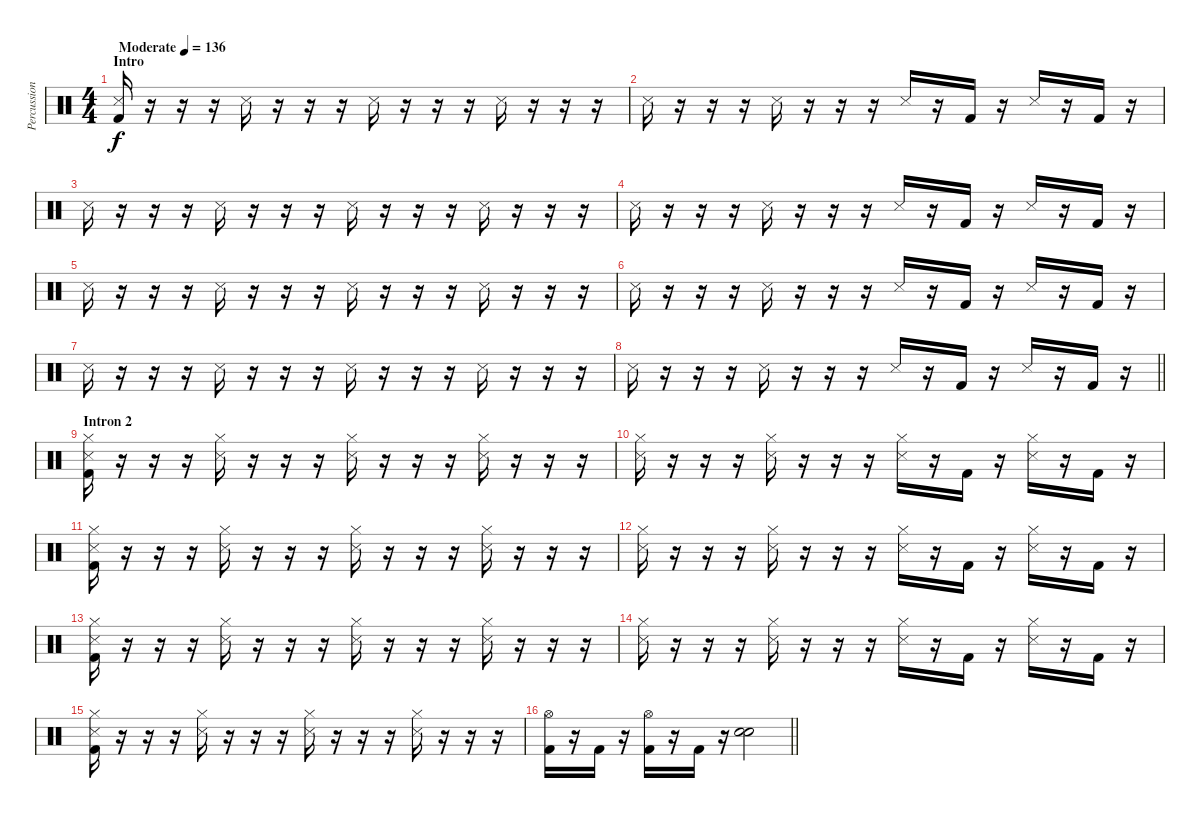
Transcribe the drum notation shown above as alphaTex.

\track ("Percussion" "Percussion") {instrument percussion}
\staff {score}
\articulation defaults
\ts (4 4)
\section ("" "Intro")
\tempo (136 "Moderate")
\clef neutral
\ks c
("Snare (side stick) 3" "Kick (hit) 2").16{dy f} r.16 r.16 r.16 "Snare (side stick) 3".16 r.16 r.16 r.16 "Snare (side stick) 3".16 r.16 r.16 r.16 "Snare (side stick) 3".16 r.16 r.16 r.16 |
"Snare (side stick) 3".16 r.16 r.16 r.16 "Snare (side stick) 3".16 r.16 r.16 r.16 "Snare (side stick) 3".16 r.16 "Kick (hit) 2".16 r.16 "Snare (side stick) 3".16 r.16 "Kick (hit) 2".16 r.16 |
"Snare (side stick) 3".16 r.16 r.16 r.16 "Snare (side stick) 3".16 r.16 r.16 r.16 "Snare (side stick) 3".16 r.16 r.16 r.16 "Snare (side stick) 3".16 r.16 r.16 r.16 |
"Snare (side stick) 3".16 r.16 r.16 r.16 "Snare (side stick) 3".16 r.16 r.16 r.16 "Snare (side stick) 3".16 r.16 "Kick (hit) 2".16 r.16 "Snare (side stick) 3".16 r.16 "Kick (hit) 2".16 r.16 |
"Snare (side stick) 3".16 r.16 r.16 r.16 "Snare (side stick) 3".16 r.16 r.16 r.16 "Snare (side stick) 3".16 r.16 r.16 r.16 "Snare (side stick) 3".16 r.16 r.16 r.16 |
"Snare (side stick) 3".16 r.16 r.16 r.16 "Snare (side stick) 3".16 r.16 r.16 r.16 "Snare (side stick) 3".16 r.16 "Kick (hit) 2".16 r.16 "Snare (side stick) 3".16 r.16 "Kick (hit) 2".16 r.16 |
"Snare (side stick) 3".16 r.16 r.16 r.16 "Snare (side stick) 3".16 r.16 r.16 r.16 "Snare (side stick) 3".16 r.16 r.16 r.16 "Snare (side stick) 3".16 r.16 r.16 r.16 |
\barLineRight lightlight "Snare (side stick) 3".16
r.16 r.16 r.16 "Snare (side stick) 3".16 r.16 r.16 r.16 "Snare (side stick) 3".16 r.16 "Kick (hit) 2".16 r.16 "Snare (side stick) 3".16 r.16 "Kick (hit) 2".16 r.16 |
\section ("" "Intron 2")
("Snare (side stick) 3" "Hi-Hat (closed)" "Kick (hit) 2").16 r.16 r.16 r.16 ("Snare (side stick) 3" "Hi-Hat (closed)").16 r.16 r.16 r.16 ("Snare (side stick) 3" "Hi-Hat (closed)").16 r.16 r.16 r.16 ("Snare (side stick) 3" "Hi-Hat (closed)").16 r.16 r.16 r.16 |
("Snare (side stick) 3" "Hi-Hat (closed)").16 r.16 r.16 r.16 ("Snare (side stick) 3" "Hi-Hat (closed)").16 r.16 r.16 r.16 ("Snare (side stick) 3" "Hi-Hat (closed)").16 r.16 "Kick (hit) 2".16 r.16 ("Snare (side stick) 3" "Hi-Hat (closed)").16 r.16 "Kick (hit) 2".16 r.16 |
("Snare (side stick) 3" "Hi-Hat (closed)" "Kick (hit) 2").16 r.16 r.16 r.16 ("Snare (side stick) 3" "Hi-Hat (closed)").16 r.16 r.16 r.16 ("Snare (side stick) 3" "Hi-Hat (closed)").16 r.16 r.16 r.16 ("Snare (side stick) 3" "Hi-Hat (closed)").16 r.16 r.16 r.16 |
("Snare (side stick) 3" "Hi-Hat (closed)").16 r.16 r.16 r.16 ("Snare (side stick) 3" "Hi-Hat (closed)").16 r.16 r.16 r.16 ("Snare (side stick) 3" "Hi-Hat (closed)").16 r.16 "Kick (hit) 2".16 r.16 ("Snare (side stick) 3" "Hi-Hat (closed)").16 r.16 "Kick (hit) 2".16 r.16 |
("Snare (side stick) 3" "Hi-Hat (closed)" "Kick (hit) 2").16 r.16 r.16 r.16 ("Snare (side stick) 3" "Hi-Hat (closed)").16 r.16 r.16 r.16 ("Snare (side stick) 3" "Hi-Hat (closed)").16 r.16 r.16 r.16 ("Snare (side stick) 3" "Hi-Hat (closed)").16 r.16 r.16 r.16 |
("Snare (side stick) 3" "Hi-Hat (closed)").16 r.16 r.16 r.16 ("Snare (side stick) 3" "Hi-Hat (closed)").16 r.16 r.16 r.16 ("Snare (side stick) 3" "Hi-Hat (closed)").16 r.16 "Kick (hit) 2".16 r.16 ("Snare (side stick) 3" "Hi-Hat (closed)").16 r.16 "Kick (hit) 2".16 r.16 |
("Snare (side stick) 3" "Hi-Hat (closed)" "Kick (hit) 2").16 r.16 r.16 r.16 ("Snare (side stick) 3" "Hi-Hat (closed)").16 r.16 r.16 r.16 ("Snare (side stick) 3" "Hi-Hat (closed)").16 r.16 r.16 r.16 ("Snare (side stick) 3" "Hi-Hat (closed)").16 r.16 r.16 r.16 |
\barLineRight lightlight
("Hi-Hat (open)" "Kick (hit) 2").16 r.16 "Kick (hit) 2".16 r.16 ("Hi-Hat (open)" "Kick (hit) 2").16 r.16 "Kick (hit) 2".16 r.16 ("Electric Snare (hit)" "Snare (hit) 2").2
